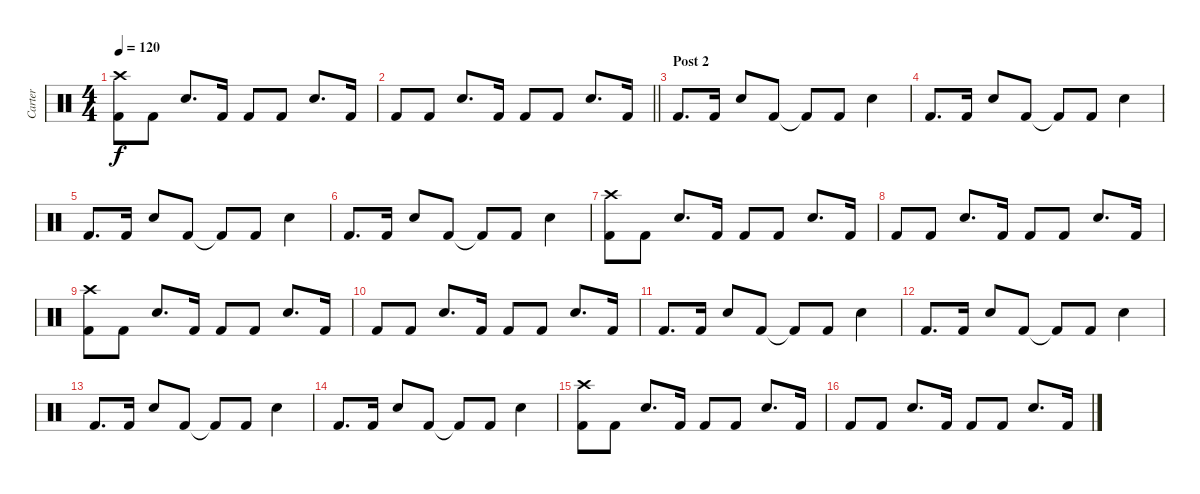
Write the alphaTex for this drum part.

\track ("Carter" "Carter") {instrument percussion}
\staff {score}
\articulation defaults
\ts (4 4)
\tempo 120
\clef neutral
\ks c
("Kick (hit) 2" "Crash high (hit)").8{dy f} "Kick (hit) 2".8 "Electric Snare (hit)".8{d} "Kick (hit) 2".16 "Kick (hit) 2".8 "Kick (hit) 2".8 "Electric Snare (hit)".8{d} "Kick (hit) 2".16 |
\barLineRight lightlight "Kick (hit) 2".8 "Kick (hit) 2".8 "Electric Snare (hit)".8{d} "Kick (hit) 2".16 "Kick (hit) 2".8 "Kick (hit) 2".8 "Electric Snare (hit)".8{d} "Kick (hit) 2".16
|
\section ("" "Post 2")
"Kick (hit) 2".8{d} "Kick (hit) 2".16 "Electric Snare (hit)".8 "Kick (hit) 2".8 "Kick (hit) 2"{t}.8 "Kick (hit) 2".8 "Electric Snare (hit)".4 |
"Kick (hit) 2".8{d} "Kick (hit) 2".16 "Electric Snare (hit)".8 "Kick (hit) 2".8 "Kick (hit) 2"{t}.8 "Kick (hit) 2".8 "Electric Snare (hit)".4 |
"Kick (hit) 2".8{d} "Kick (hit) 2".16 "Electric Snare (hit)".8 "Kick (hit) 2".8 "Kick (hit) 2"{t}.8 "Kick (hit) 2".8 "Electric Snare (hit)".4 |
"Kick (hit) 2".8{d} "Kick (hit) 2".16 "Electric Snare (hit)".8 "Kick (hit) 2".8 "Kick (hit) 2"{t}.8 "Kick (hit) 2".8 "Electric Snare (hit)".4 |
("Kick (hit) 2" "Crash high (hit)").8 "Kick (hit) 2".8 "Electric Snare (hit)".8{d} "Kick (hit) 2".16 "Kick (hit) 2".8 "Kick (hit) 2".8 "Electric Snare (hit)".8{d} "Kick (hit) 2".16 |
"Kick (hit) 2".8 "Kick (hit) 2".8 "Electric Snare (hit)".8{d} "Kick (hit) 2".16 "Kick (hit) 2".8 "Kick (hit) 2".8 "Electric Snare (hit)".8{d} "Kick (hit) 2".16 |
("Kick (hit) 2" "Crash high (hit)").8 "Kick (hit) 2".8 "Electric Snare (hit)".8{d} "Kick (hit) 2".16 "Kick (hit) 2".8 "Kick (hit) 2".8 "Electric Snare (hit)".8{d} "Kick (hit) 2".16 |
"Kick (hit) 2".8 "Kick (hit) 2".8 "Electric Snare (hit)".8{d} "Kick (hit) 2".16 "Kick (hit) 2".8 "Kick (hit) 2".8 "Electric Snare (hit)".8{d} "Kick (hit) 2".16 |
"Kick (hit) 2".8{d} "Kick (hit) 2".16 "Electric Snare (hit)".8 "Kick (hit) 2".8 "Kick (hit) 2"{t}.8 "Kick (hit) 2".8 "Electric Snare (hit)".4 |
"Kick (hit) 2".8{d} "Kick (hit) 2".16 "Electric Snare (hit)".8 "Kick (hit) 2".8 "Kick (hit) 2"{t}.8 "Kick (hit) 2".8 "Electric Snare (hit)".4 |
"Kick (hit) 2".8{d} "Kick (hit) 2".16 "Electric Snare (hit)".8 "Kick (hit) 2".8 "Kick (hit) 2"{t}.8 "Kick (hit) 2".8 "Electric Snare (hit)".4 |
"Kick (hit) 2".8{d} "Kick (hit) 2".16 "Electric Snare (hit)".8 "Kick (hit) 2".8 "Kick (hit) 2"{t}.8 "Kick (hit) 2".8 "Electric Snare (hit)".4 |
("Kick (hit) 2" "Crash high (hit)").8 "Kick (hit) 2".8 "Electric Snare (hit)".8{d} "Kick (hit) 2".16 "Kick (hit) 2".8 "Kick (hit) 2".8 "Electric Snare (hit)".8{d} "Kick (hit) 2".16 |
"Kick (hit) 2".8 "Kick (hit) 2".8 "Electric Snare (hit)".8{d} "Kick (hit) 2".16 "Kick (hit) 2".8 "Kick (hit) 2".8 "Electric Snare (hit)".8{d} "Kick (hit) 2".16
